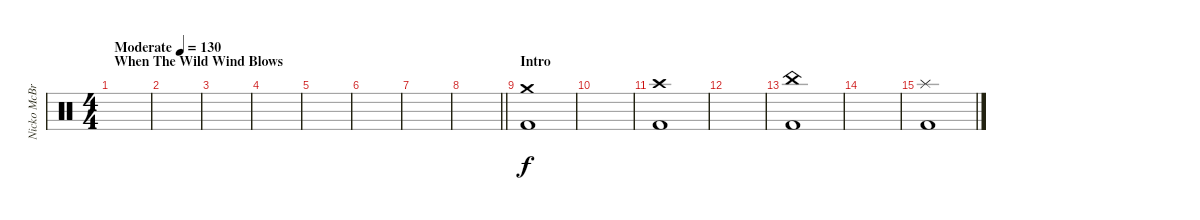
\track ("Nicko McBrain" "Nicko McBr") {instrument percussion}
\staff {score}
\articulation defaults
\ts (4 4)
\section ("" "When The Wild Wind Blows")
\tempo (130 "Moderate")
\clef neutral
\ks c
|
|
|
|
|
|
|
\barLineRight lightlight
|
\section ("" "Intro")
("Crash medium (hit)" "Kick (hit) 2").1 |
|
("Crash high (hit)" "Kick (hit) 2").1 |
|
("China (hit)" "Kick (hit) 2").1 |
|
("Splash (hit)" "Kick (hit) 2").1
